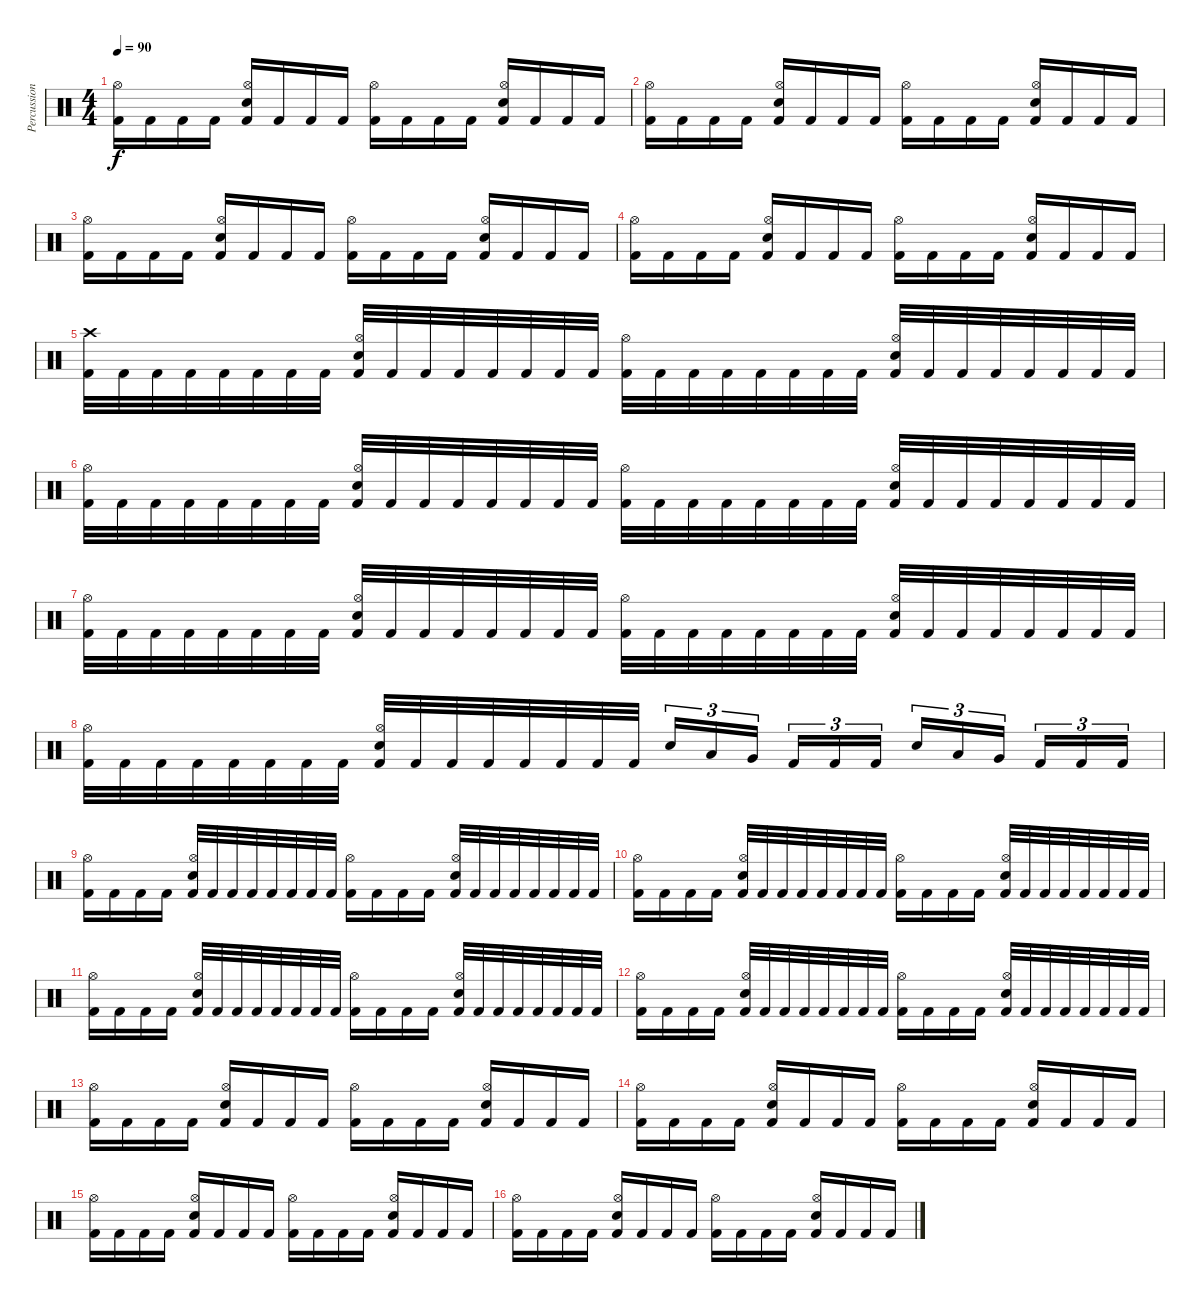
\track ("Percussion" "Percussion") {instrument percussion}
\staff {score}
\articulation defaults
\ts (4 4)
\tempo 90
\clef neutral
\ks c
("Kick (hit) 2" "Hi-Hat (open)").16{dy f} "Kick (hit) 2".16 "Kick (hit) 2".16 "Kick (hit) 2".16 ("Kick (hit) 2" "Hi-Hat (open)" "Electric Snare (hit)").16 "Kick (hit) 2".16 "Kick (hit) 2".16 "Kick (hit) 2".16 ("Kick (hit) 2" "Hi-Hat (open)").16 "Kick (hit) 2".16 "Kick (hit) 2".16 "Kick (hit) 2".16 ("Kick (hit) 2" "Hi-Hat (open)" "Electric Snare (hit)").16 "Kick (hit) 2".16 "Kick (hit) 2".16 "Kick (hit) 2".16 |
("Kick (hit) 2" "Hi-Hat (open)").16 "Kick (hit) 2".16 "Kick (hit) 2".16 "Kick (hit) 2".16 ("Kick (hit) 2" "Hi-Hat (open)" "Electric Snare (hit)").16 "Kick (hit) 2".16 "Kick (hit) 2".16 "Kick (hit) 2".16 ("Kick (hit) 2" "Hi-Hat (open)").16 "Kick (hit) 2".16 "Kick (hit) 2".16 "Kick (hit) 2".16 ("Kick (hit) 2" "Hi-Hat (open)" "Electric Snare (hit)").16 "Kick (hit) 2".16 "Kick (hit) 2".16 "Kick (hit) 2".16 |
("Kick (hit) 2" "Hi-Hat (open)").16 "Kick (hit) 2".16 "Kick (hit) 2".16 "Kick (hit) 2".16 ("Kick (hit) 2" "Hi-Hat (open)" "Electric Snare (hit)").16 "Kick (hit) 2".16 "Kick (hit) 2".16 "Kick (hit) 2".16 ("Kick (hit) 2" "Hi-Hat (open)").16 "Kick (hit) 2".16 "Kick (hit) 2".16 "Kick (hit) 2".16 ("Kick (hit) 2" "Hi-Hat (open)" "Electric Snare (hit)").16 "Kick (hit) 2".16 "Kick (hit) 2".16 "Kick (hit) 2".16 |
("Kick (hit) 2" "Hi-Hat (open)").16 "Kick (hit) 2".16 "Kick (hit) 2".16 "Kick (hit) 2".16 ("Kick (hit) 2" "Hi-Hat (open)" "Electric Snare (hit)").16 "Kick (hit) 2".16 "Kick (hit) 2".16 "Kick (hit) 2".16 ("Kick (hit) 2" "Hi-Hat (open)").16 "Kick (hit) 2".16 "Kick (hit) 2".16 "Kick (hit) 2".16 ("Kick (hit) 2" "Hi-Hat (open)" "Electric Snare (hit)").16 "Kick (hit) 2".16 "Kick (hit) 2".16 "Kick (hit) 2".16 |
("Kick (hit) 2" "Crash high (hit)").32 "Kick (hit) 2".32 "Kick (hit) 2".32 "Kick (hit) 2".32 "Kick (hit) 2".32 "Kick (hit) 2".32 "Kick (hit) 2".32 "Kick (hit) 2".32 ("Kick (hit) 2" "Hi-Hat (open)" "Electric Snare (hit)").32 "Kick (hit) 2".32 "Kick (hit) 2".32 "Kick (hit) 2".32 "Kick (hit) 2".32 "Kick (hit) 2".32 "Kick (hit) 2".32 "Kick (hit) 2".32 ("Kick (hit) 2" "Hi-Hat (open)").32 "Kick (hit) 2".32 "Kick (hit) 2".32 "Kick (hit) 2".32 "Kick (hit) 2".32 "Kick (hit) 2".32 "Kick (hit) 2".32 "Kick (hit) 2".32 ("Kick (hit) 2" "Hi-Hat (open)" "Electric Snare (hit)").32 "Kick (hit) 2".32 "Kick (hit) 2".32 "Kick (hit) 2".32 "Kick (hit) 2".32 "Kick (hit) 2".32 "Kick (hit) 2".32 "Kick (hit) 2".32 |
("Kick (hit) 2" "Hi-Hat (open)").32 "Kick (hit) 2".32 "Kick (hit) 2".32 "Kick (hit) 2".32 "Kick (hit) 2".32 "Kick (hit) 2".32 "Kick (hit) 2".32 "Kick (hit) 2".32 ("Kick (hit) 2" "Hi-Hat (open)" "Electric Snare (hit)").32 "Kick (hit) 2".32 "Kick (hit) 2".32 "Kick (hit) 2".32 "Kick (hit) 2".32 "Kick (hit) 2".32 "Kick (hit) 2".32 "Kick (hit) 2".32 ("Kick (hit) 2" "Hi-Hat (open)").32 "Kick (hit) 2".32 "Kick (hit) 2".32 "Kick (hit) 2".32 "Kick (hit) 2".32 "Kick (hit) 2".32 "Kick (hit) 2".32 "Kick (hit) 2".32 ("Kick (hit) 2" "Hi-Hat (open)" "Electric Snare (hit)").32 "Kick (hit) 2".32 "Kick (hit) 2".32 "Kick (hit) 2".32 "Kick (hit) 2".32 "Kick (hit) 2".32 "Kick (hit) 2".32 "Kick (hit) 2".32 |
("Kick (hit) 2" "Hi-Hat (open)").32 "Kick (hit) 2".32 "Kick (hit) 2".32 "Kick (hit) 2".32 "Kick (hit) 2".32 "Kick (hit) 2".32 "Kick (hit) 2".32 "Kick (hit) 2".32 ("Kick (hit) 2" "Hi-Hat (open)" "Electric Snare (hit)").32 "Kick (hit) 2".32 "Kick (hit) 2".32 "Kick (hit) 2".32 "Kick (hit) 2".32 "Kick (hit) 2".32 "Kick (hit) 2".32 "Kick (hit) 2".32 ("Kick (hit) 2" "Hi-Hat (open)").32 "Kick (hit) 2".32 "Kick (hit) 2".32 "Kick (hit) 2".32 "Kick (hit) 2".32 "Kick (hit) 2".32 "Kick (hit) 2".32 "Kick (hit) 2".32 ("Kick (hit) 2" "Hi-Hat (open)" "Electric Snare (hit)").32 "Kick (hit) 2".32 "Kick (hit) 2".32 "Kick (hit) 2".32 "Kick (hit) 2".32 "Kick (hit) 2".32 "Kick (hit) 2".32 "Kick (hit) 2".32 |
("Kick (hit) 2" "Hi-Hat (open)").32 "Kick (hit) 2".32 "Kick (hit) 2".32 "Kick (hit) 2".32 "Kick (hit) 2".32 "Kick (hit) 2".32 "Kick (hit) 2".32 "Kick (hit) 2".32 ("Kick (hit) 2" "Hi-Hat (open)" "Electric Snare (hit)").32 "Kick (hit) 2".32 "Kick (hit) 2".32 "Kick (hit) 2".32 "Kick (hit) 2".32 "Kick (hit) 2".32 "Kick (hit) 2".32 "Kick (hit) 2".32 "Electric Snare (hit)".16{tu (3 2)} "Low Tom (hit)".16{tu (3 2)} "Very Low Tom (hit)".16{tu (3 2) beam splitsecondary} "Kick (hit) 2".16{tu (3 2)} "Kick (hit) 2".16{tu (3 2)} "Kick (hit) 2".16{tu (3 2)} "Electric Snare (hit)".16{tu (3 2)} "Low Tom (hit)".16{tu (3 2)} "Very Low Tom (hit)".16{tu (3 2) beam splitsecondary} "Kick (hit) 2".16{tu (3 2)} "Kick (hit) 2".16{tu (3 2)} "Kick (hit) 2".16{tu (3 2)} |
("Kick (hit) 2" "Hi-Hat (open)").16 "Kick (hit) 2".16 "Kick (hit) 2".16 "Kick (hit) 2".16 ("Kick (hit) 2" "Hi-Hat (open)" "Electric Snare (hit)").32 "Kick (hit) 2".32 "Kick (hit) 2".32 "Kick (hit) 2".32 "Kick (hit) 2".32 "Kick (hit) 2".32 "Kick (hit) 2".32 "Kick (hit) 2".32 ("Kick (hit) 2" "Hi-Hat (open)").16 "Kick (hit) 2".16 "Kick (hit) 2".16 "Kick (hit) 2".16 ("Kick (hit) 2" "Hi-Hat (open)" "Electric Snare (hit)").32 "Kick (hit) 2".32 "Kick (hit) 2".32 "Kick (hit) 2".32 "Kick (hit) 2".32 "Kick (hit) 2".32 "Kick (hit) 2".32 "Kick (hit) 2".32 |
("Kick (hit) 2" "Hi-Hat (open)").16 "Kick (hit) 2".16 "Kick (hit) 2".16 "Kick (hit) 2".16 ("Kick (hit) 2" "Hi-Hat (open)" "Electric Snare (hit)").32 "Kick (hit) 2".32 "Kick (hit) 2".32 "Kick (hit) 2".32 "Kick (hit) 2".32 "Kick (hit) 2".32 "Kick (hit) 2".32 "Kick (hit) 2".32 ("Kick (hit) 2" "Hi-Hat (open)").16 "Kick (hit) 2".16 "Kick (hit) 2".16 "Kick (hit) 2".16 ("Kick (hit) 2" "Hi-Hat (open)" "Electric Snare (hit)").32 "Kick (hit) 2".32 "Kick (hit) 2".32 "Kick (hit) 2".32 "Kick (hit) 2".32 "Kick (hit) 2".32 "Kick (hit) 2".32 "Kick (hit) 2".32 |
("Kick (hit) 2" "Hi-Hat (open)").16 "Kick (hit) 2".16 "Kick (hit) 2".16 "Kick (hit) 2".16 ("Kick (hit) 2" "Hi-Hat (open)" "Electric Snare (hit)").32 "Kick (hit) 2".32 "Kick (hit) 2".32 "Kick (hit) 2".32 "Kick (hit) 2".32 "Kick (hit) 2".32 "Kick (hit) 2".32 "Kick (hit) 2".32 ("Kick (hit) 2" "Hi-Hat (open)").16 "Kick (hit) 2".16 "Kick (hit) 2".16 "Kick (hit) 2".16 ("Kick (hit) 2" "Hi-Hat (open)" "Electric Snare (hit)").32 "Kick (hit) 2".32 "Kick (hit) 2".32 "Kick (hit) 2".32 "Kick (hit) 2".32 "Kick (hit) 2".32 "Kick (hit) 2".32 "Kick (hit) 2".32 |
("Kick (hit) 2" "Hi-Hat (open)").16 "Kick (hit) 2".16 "Kick (hit) 2".16 "Kick (hit) 2".16 ("Kick (hit) 2" "Hi-Hat (open)" "Electric Snare (hit)").32 "Kick (hit) 2".32 "Kick (hit) 2".32 "Kick (hit) 2".32 "Kick (hit) 2".32 "Kick (hit) 2".32 "Kick (hit) 2".32 "Kick (hit) 2".32 ("Kick (hit) 2" "Hi-Hat (open)").16 "Kick (hit) 2".16 "Kick (hit) 2".16 "Kick (hit) 2".16 ("Kick (hit) 2" "Hi-Hat (open)" "Electric Snare (hit)").32 "Kick (hit) 2".32 "Kick (hit) 2".32 "Kick (hit) 2".32 "Kick (hit) 2".32 "Kick (hit) 2".32 "Kick (hit) 2".32 "Kick (hit) 2".32 |
("Kick (hit) 2" "Hi-Hat (open)").16 "Kick (hit) 2".16 "Kick (hit) 2".16 "Kick (hit) 2".16 ("Kick (hit) 2" "Hi-Hat (open)" "Electric Snare (hit)").16 "Kick (hit) 2".16 "Kick (hit) 2".16 "Kick (hit) 2".16 ("Kick (hit) 2" "Hi-Hat (open)").16 "Kick (hit) 2".16 "Kick (hit) 2".16 "Kick (hit) 2".16 ("Kick (hit) 2" "Hi-Hat (open)" "Electric Snare (hit)").16 "Kick (hit) 2".16 "Kick (hit) 2".16 "Kick (hit) 2".16 |
("Kick (hit) 2" "Hi-Hat (open)").16 "Kick (hit) 2".16 "Kick (hit) 2".16 "Kick (hit) 2".16 ("Kick (hit) 2" "Hi-Hat (open)" "Electric Snare (hit)").16 "Kick (hit) 2".16 "Kick (hit) 2".16 "Kick (hit) 2".16 ("Kick (hit) 2" "Hi-Hat (open)").16 "Kick (hit) 2".16 "Kick (hit) 2".16 "Kick (hit) 2".16 ("Kick (hit) 2" "Hi-Hat (open)" "Electric Snare (hit)").16 "Kick (hit) 2".16 "Kick (hit) 2".16 "Kick (hit) 2".16 |
("Kick (hit) 2" "Hi-Hat (open)").16 "Kick (hit) 2".16 "Kick (hit) 2".16 "Kick (hit) 2".16 ("Kick (hit) 2" "Hi-Hat (open)" "Electric Snare (hit)").16 "Kick (hit) 2".16 "Kick (hit) 2".16 "Kick (hit) 2".16 ("Kick (hit) 2" "Hi-Hat (open)").16 "Kick (hit) 2".16 "Kick (hit) 2".16 "Kick (hit) 2".16 ("Kick (hit) 2" "Hi-Hat (open)" "Electric Snare (hit)").16 "Kick (hit) 2".16 "Kick (hit) 2".16 "Kick (hit) 2".16 |
("Kick (hit) 2" "Hi-Hat (open)").16 "Kick (hit) 2".16 "Kick (hit) 2".16 "Kick (hit) 2".16 ("Kick (hit) 2" "Hi-Hat (open)" "Electric Snare (hit)").16 "Kick (hit) 2".16 "Kick (hit) 2".16 "Kick (hit) 2".16 ("Kick (hit) 2" "Hi-Hat (open)").16 "Kick (hit) 2".16 "Kick (hit) 2".16 "Kick (hit) 2".16 ("Kick (hit) 2" "Hi-Hat (open)" "Electric Snare (hit)").16 "Kick (hit) 2".16 "Kick (hit) 2".16 "Kick (hit) 2".16
